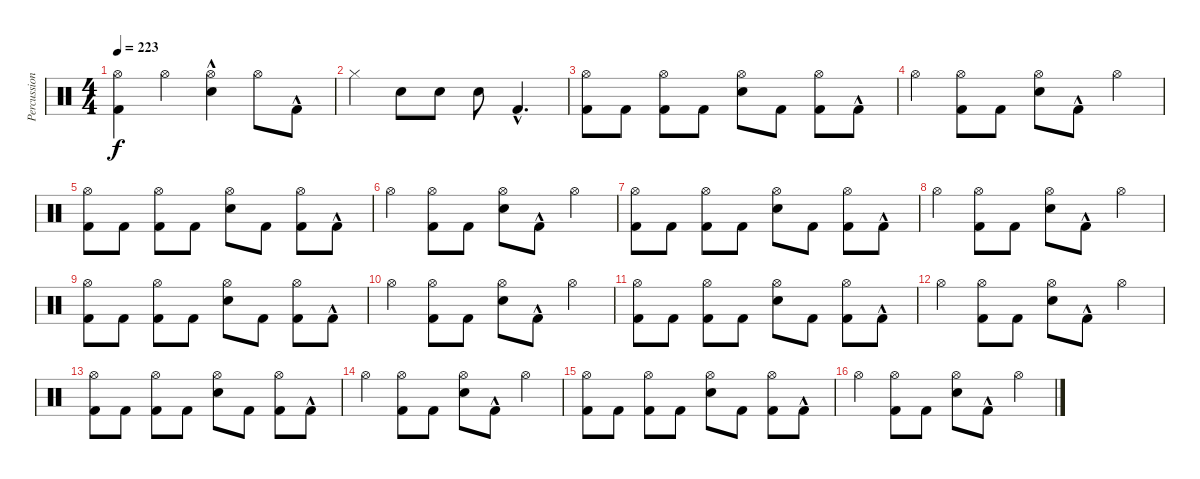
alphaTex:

\track ("Percussion" "Percussion") {instrument percussion}
\staff {score}
\articulation defaults
\ts (4 4)
\tempo 223
\clef neutral
\ks c
("Hi-Hat (open)" "Kick (hit) 2").4{dy f} "Hi-Hat (open)".4 ("Hi-Hat (open)" "Electric Snare (hit)"{hac}).4 "Hi-Hat (open)".8 "Kick (hit) 2"{hac}.8 |
"Hi-Hat (closed)".4 "Electric Snare (hit)".8 "Electric Snare (hit)".8 "Electric Snare (hit)".8 "Kick (hit) 2"{hac}.4{d} |
("Kick (hit) 2" "Hi-Hat (open)").8 "Kick (hit) 2".8 ("Hi-Hat (open)" "Kick (hit) 2").8 "Kick (hit) 2".8 ("Hi-Hat (open)" "Electric Snare (hit)").8 "Kick (hit) 2".8 ("Hi-Hat (open)" "Kick (hit) 2").8 "Kick (hit) 2"{hac}.8 |
"Hi-Hat (open)".4 ("Hi-Hat (open)" "Kick (hit) 2").8 "Kick (hit) 2".8 ("Hi-Hat (open)" "Electric Snare (hit)").8 "Kick (hit) 2"{hac}.8 "Hi-Hat (open)".4 |
("Hi-Hat (open)" "Kick (hit) 2").8 "Kick (hit) 2".8 ("Hi-Hat (open)" "Kick (hit) 2").8 "Kick (hit) 2".8 ("Hi-Hat (open)" "Electric Snare (hit)").8 "Kick (hit) 2".8 ("Hi-Hat (open)" "Kick (hit) 2").8 "Kick (hit) 2"{hac}.8 |
"Hi-Hat (open)".4 ("Hi-Hat (open)" "Kick (hit) 2").8 "Kick (hit) 2".8 ("Hi-Hat (open)" "Electric Snare (hit)").8 "Kick (hit) 2"{hac}.8 "Hi-Hat (open)".4 |
("Kick (hit) 2" "Hi-Hat (open)").8 "Kick (hit) 2".8 ("Hi-Hat (open)" "Kick (hit) 2").8 "Kick (hit) 2".8 ("Hi-Hat (open)" "Electric Snare (hit)").8 "Kick (hit) 2".8 ("Hi-Hat (open)" "Kick (hit) 2").8 "Kick (hit) 2"{hac}.8 |
"Hi-Hat (open)".4 ("Hi-Hat (open)" "Kick (hit) 2").8 "Kick (hit) 2".8 ("Hi-Hat (open)" "Electric Snare (hit)").8 "Kick (hit) 2"{hac}.8 "Hi-Hat (open)".4 |
("Hi-Hat (open)" "Kick (hit) 2").8 "Kick (hit) 2".8 ("Hi-Hat (open)" "Kick (hit) 2").8 "Kick (hit) 2".8 ("Hi-Hat (open)" "Electric Snare (hit)").8 "Kick (hit) 2".8 ("Hi-Hat (open)" "Kick (hit) 2").8 "Kick (hit) 2"{hac}.8 |
"Hi-Hat (open)".4 ("Hi-Hat (open)" "Kick (hit) 2").8 "Kick (hit) 2".8 ("Hi-Hat (open)" "Electric Snare (hit)").8 "Kick (hit) 2"{hac}.8 "Hi-Hat (open)".4 |
("Kick (hit) 2" "Hi-Hat (open)").8 "Kick (hit) 2".8 ("Hi-Hat (open)" "Kick (hit) 2").8 "Kick (hit) 2".8 ("Hi-Hat (open)" "Electric Snare (hit)").8 "Kick (hit) 2".8 ("Hi-Hat (open)" "Kick (hit) 2").8 "Kick (hit) 2"{hac}.8 |
"Hi-Hat (open)".4 ("Hi-Hat (open)" "Kick (hit) 2").8 "Kick (hit) 2".8 ("Hi-Hat (open)" "Electric Snare (hit)").8 "Kick (hit) 2"{hac}.8 "Hi-Hat (open)".4 |
("Hi-Hat (open)" "Kick (hit) 2").8 "Kick (hit) 2".8 ("Hi-Hat (open)" "Kick (hit) 2").8 "Kick (hit) 2".8 ("Hi-Hat (open)" "Electric Snare (hit)").8 "Kick (hit) 2".8 ("Hi-Hat (open)" "Kick (hit) 2").8 "Kick (hit) 2"{hac}.8 |
"Hi-Hat (open)".4 ("Hi-Hat (open)" "Kick (hit) 2").8 "Kick (hit) 2".8 ("Hi-Hat (open)" "Electric Snare (hit)").8 "Kick (hit) 2"{hac}.8 "Hi-Hat (open)".4 |
("Kick (hit) 2" "Hi-Hat (open)").8 "Kick (hit) 2".8 ("Hi-Hat (open)" "Kick (hit) 2").8 "Kick (hit) 2".8 ("Hi-Hat (open)" "Electric Snare (hit)").8 "Kick (hit) 2".8 ("Hi-Hat (open)" "Kick (hit) 2").8 "Kick (hit) 2"{hac}.8 |
"Hi-Hat (open)".4 ("Hi-Hat (open)" "Kick (hit) 2").8 "Kick (hit) 2".8 ("Hi-Hat (open)" "Electric Snare (hit)").8 "Kick (hit) 2"{hac}.8 "Hi-Hat (open)".4
